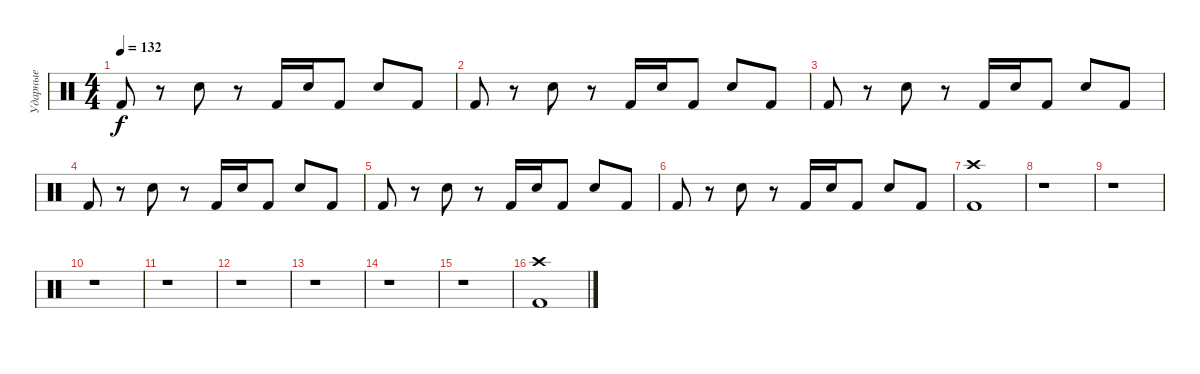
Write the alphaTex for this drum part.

\track ("Ударные" "Ударные") {instrument percussion}
\staff {score}
\articulation defaults
\ts (4 4)
\tempo 132
\clef neutral
\ks c "Kick (hit) 2".8{dy f}
r.8 "Electric Snare (hit)".8 r.8 "Kick (hit) 2".16 "Electric Snare (hit)".16 "Kick (hit) 2".8 "Electric Snare (hit)".8 "Kick (hit) 2".8 |
"Kick (hit) 2".8 r.8 "Electric Snare (hit)".8 r.8 "Kick (hit) 2".16 "Electric Snare (hit)".16 "Kick (hit) 2".8 "Electric Snare (hit)".8 "Kick (hit) 2".8 |
"Kick (hit) 2".8 r.8 "Electric Snare (hit)".8 r.8 "Kick (hit) 2".16 "Electric Snare (hit)".16 "Kick (hit) 2".8 "Electric Snare (hit)".8 "Kick (hit) 2".8 |
"Kick (hit) 2".8 r.8 "Electric Snare (hit)".8 r.8 "Kick (hit) 2".16 "Electric Snare (hit)".16 "Kick (hit) 2".8 "Electric Snare (hit)".8 "Kick (hit) 2".8 |
"Kick (hit) 2".8 r.8 "Electric Snare (hit)".8 r.8 "Kick (hit) 2".16 "Electric Snare (hit)".16 "Kick (hit) 2".8 "Electric Snare (hit)".8 "Kick (hit) 2".8 |
"Kick (hit) 2".8 r.8 "Electric Snare (hit)".8 r.8 "Kick (hit) 2".16 "Electric Snare (hit)".16 "Kick (hit) 2".8 "Electric Snare (hit)".8 "Kick (hit) 2".8 |
("Crash high (hit)" "Kick (hit) 2").1 |
r.1 |
r.1 |
r.1 |
r.1 |
r.1 |
r.1 |
r.1 |
r.1 |
("Crash high (hit)" "Kick (hit) 2").1
